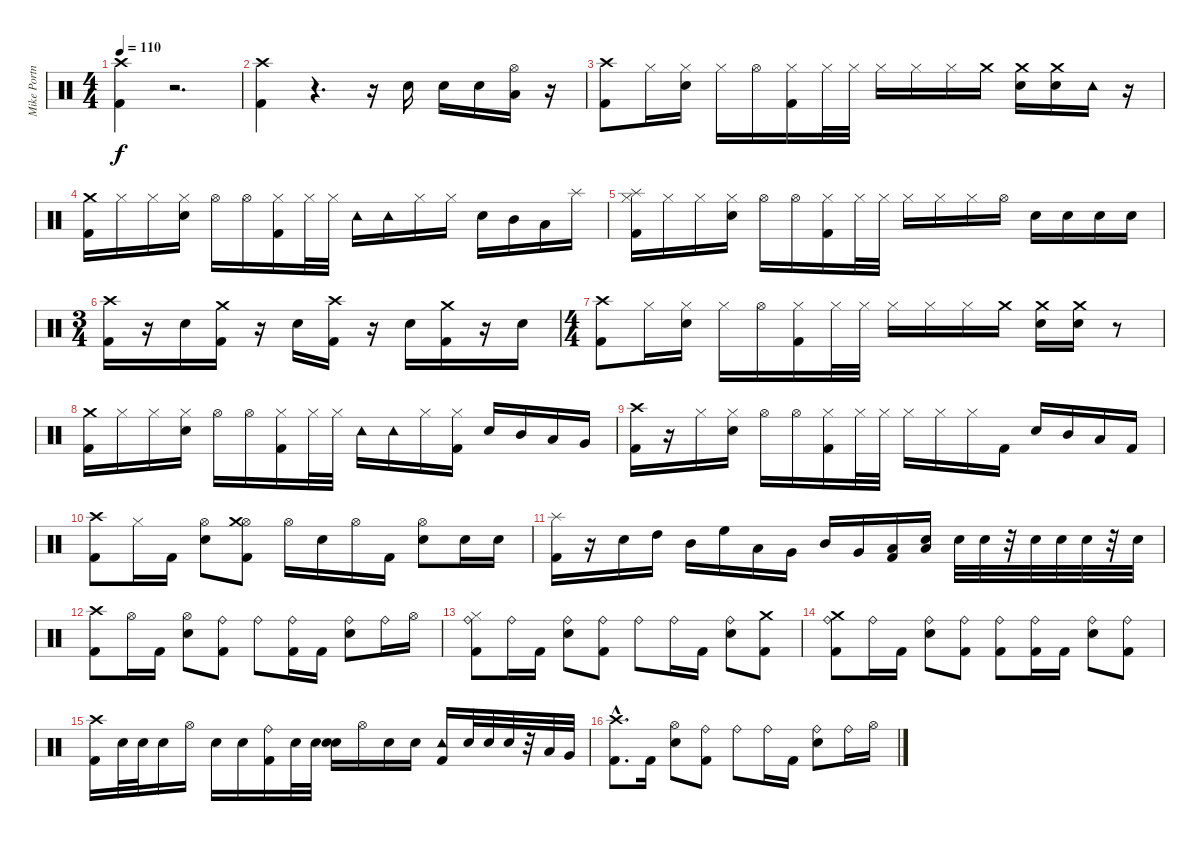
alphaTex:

\track ("Mike Portnoy - Drums" "Mike Portn") {instrument percussion}
\staff {score}
\articulation defaults
\ts (4 4)
\tempo 110
\clef neutral
\ks c
("Crash high (hit)" "Kick (hit) 2").4{dy f} r.2{d} |
("Crash high (hit)" "Kick (hit) 2").4 r.4{d} r.16 "Electric Snare (hit)".16 "Electric Snare (hit)".16 "Electric Snare (hit)".16 ("Low Tom (hit)" "Hi-Hat (open)").16 r.16 |
("Crash high (hit)" "Kick (hit) 2").8 "Hi-Hat (closed)".16 ("Electric Snare (hit)" "Hi-Hat (closed)").16 "Hi-Hat (closed)".16 "Hi-Hat (open)".16 ("Kick (hit) 2" "Hi-Hat (closed)").16 "Hi-Hat (closed)".32 "Hi-Hat (closed)".32 "Hi-Hat (closed)".16 "Hi-Hat (closed)".16 "Hi-Hat (closed)".16 "Crash medium (hit)".16 ("Electric Snare (hit)" "Crash medium (hit)").16 ("Electric Snare (hit)" "Crash medium (hit)").16 "Tambourine (hit)".16 r.16 |
("Kick (hit) 2" "Crash medium (hit)").16 "Hi-Hat (closed)".16 "Hi-Hat (closed)".16 ("Electric Snare (hit)" "Hi-Hat (closed)").16 "Hi-Hat (open)".16 "Hi-Hat (open)".16 ("Kick (hit) 2" "Hi-Hat (closed)").16 "Hi-Hat (closed)".32 "Hi-Hat (closed)".32 "Tambourine (hit)".16 "Tambourine (hit)".16 "Hi-Hat (closed)".16 "Hi-Hat (closed)".16 "Electric Snare (hit)".16 "Mid Tom (hit)".16 "Low Tom (hit)".16 "Splash (hit)".16 |
("Kick (hit) 2" "Splash (hit)" "Hi-Hat (closed)").16 "Hi-Hat (closed)".16 "Hi-Hat (closed)".16 ("Electric Snare (hit)" "Hi-Hat (closed)").16 "Hi-Hat (open)".16 "Hi-Hat (open)".16 ("Kick (hit) 2" "Hi-Hat (closed)").16 "Hi-Hat (closed)".32 "Hi-Hat (closed)".32 "Hi-Hat (closed)".16 "Hi-Hat (closed)".16 "Hi-Hat (closed)".16 "Hi-Hat (open)".16 "Electric Snare (hit)".16 "Electric Snare (hit)".16 "Electric Snare (hit)".16 "Electric Snare (hit)".16 |
\ts (3 4)
("Kick (hit) 2" "Crash high (hit)").16 r.16 "Electric Snare (hit)".16 ("Kick (hit) 2" "Crash medium (hit)").16 r.16 "Electric Snare (hit)".16 ("Kick (hit) 2" "Crash high (hit)").16 r.16 "Electric Snare (hit)".16 ("Kick (hit) 2" "Crash medium (hit)").16 r.16 "Electric Snare (hit)".16 |
\ts (4 4)
("Kick (hit) 2" "Crash high (hit)").8 "Hi-Hat (closed)".16 ("Electric Snare (hit)" "Hi-Hat (closed)").16 "Hi-Hat (closed)".16 "Hi-Hat (open)".16 ("Kick (hit) 2" "Hi-Hat (closed)").16 "Hi-Hat (closed)".32 "Hi-Hat (closed)".32 "Hi-Hat (closed)".16 "Hi-Hat (closed)".16 "Hi-Hat (closed)".16 "Crash medium (hit)".16 ("Electric Snare (hit)" "Crash medium (hit)").16 ("Electric Snare (hit)" "Crash medium (hit)").16 r.8 |
("Crash medium (hit)" "Kick (hit) 2").16 "Hi-Hat (closed)".16 "Hi-Hat (closed)".16 ("Electric Snare (hit)" "Hi-Hat (closed)").16 "Hi-Hat (open)".16 "Hi-Hat (open)".16 ("Kick (hit) 2" "Hi-Hat (closed)").16 "Hi-Hat (closed)".32 "Hi-Hat (closed)".32 "Tambourine (hit)".16 "Tambourine (hit)".16 "Hi-Hat (closed)".16 ("Kick (hit) 2" "Hi-Hat (closed)").16 "Electric Snare (hit)".16 "Mid Tom (hit)".16 "Low Tom (hit)".16 "Very Low Tom (hit)".16 |
("Crash high (hit)" "Kick (hit) 2").16 r.16 "Hi-Hat (closed)".16 ("Electric Snare (hit)" "Hi-Hat (closed)").16 "Hi-Hat (open)".16 "Hi-Hat (open)".16 ("Kick (hit) 2" "Hi-Hat (closed)").16 "Hi-Hat (closed)".32 "Hi-Hat (closed)".32 "Hi-Hat (closed)".16 "Hi-Hat (closed)".16 "Hi-Hat (closed)".16 "Kick (hit) 2".16 "Electric Snare (hit)".16 "Mid Tom (hit)".16 "Low Tom (hit)".16 "Kick (hit) 2".16 |
("Crash high (hit)" "Kick (hit) 2").8 "Hi-Hat (closed)".16 "Kick (hit) 2".16 ("Electric Snare (hit)" "Hi-Hat (open)").8 ("Hi-Hat (open)" "Kick (hit) 2" "Crash medium (hit)").8 "Hi-Hat (open)".16 "Electric Snare (hit)".16 "Hi-Hat (open)".16 "Kick (hit) 2".16 ("Electric Snare (hit)" "Hi-Hat (open)").8 "Electric Snare (hit)".16 "Electric Snare (hit)".16 |
("Splash (hit)" "Kick (hit) 2").16 r.16 "Electric Snare (hit)".16 "High Tom (hit)".16 "Mid Tom (hit)".16 "High Floor Tom (hit)".16 "Low Tom (hit)".16 "Very Low Tom (hit)".16 "Mid Tom (hit)".16 "Very Low Tom (hit)".16 ("Kick (hit) 2" "Low Floor Tom (hit)").16 ("Metronome (bell)" "Low Floor Tom (hit)").16 "Electric Snare (hit)".32 "Electric Snare (hit)".32 r.32 "Electric Snare (hit)".32 "Electric Snare (hit)".32 "Electric Snare (hit)".32 r.32 "Electric Snare (hit)".32 |
("Crash high (hit)" "Kick (hit) 2").8 "Hi-Hat (open)".16 "Kick (hit) 2".16 ("Electric Snare (hit)" "Hi-Hat (open)").8 ("Kick (hit) 2" "Ride (bell)").8 "Ride (bell)".8 ("Kick (hit) 2" "Ride (bell)").16 "Kick (hit) 2".16 ("Electric Snare (hit)" "Ride (bell)").8 "Ride (bell)".16 "Hi-Hat (open)".16 |
("Ride (bell)" "Hi-Hat (closed)" "Kick (hit) 2").8 "Ride (bell)".16 "Kick (hit) 2".16 ("Electric Snare (hit)" "Ride (bell)").8 ("Kick (hit) 2" "Ride (bell)").8 "Ride (bell)".8 "Ride (bell)".16 "Kick (hit) 2".16 ("Ride (bell)" "Electric Snare (hit)").8 ("Kick (hit) 2" "Crash medium (hit)").8 |
("Kick (hit) 2" "Ride (bell)" "Crash medium (hit)").8 "Ride (bell)".16 "Kick (hit) 2".16 ("Electric Snare (hit)" "Ride (bell)").8 ("Ride (bell)" "Kick (hit) 2").8 ("Ride (bell)" "Kick (hit) 2").8 ("Ride (bell)" "Kick (hit) 2").16 "Kick (hit) 2".16 ("Ride (bell)" "Electric Snare (hit)").8 ("Kick (hit) 2" "Ride (bell)").8 |
("Crash high (hit)" "Kick (hit) 2").16 "Electric Snare (hit)".32 "Electric Snare (hit)".32 "Electric Snare (hit)".16 "Hi-Hat (open)".16 "Electric Snare (hit)".16 "Electric Snare (hit)".16 ("Kick (hit) 2" "Ride (bell)").16 "Electric Snare (hit)".32 "Electric Snare (hit)".32 ("Electric Snare (hit)" "Electric Snare (hit)").16 "Hi-Hat (open)".16 "Electric Snare (hit)".16 "Electric Snare (hit)".16 ("Kick (hit) 2" "Tambourine (hit)").16 "Electric Snare (hit)".32 "Electric Snare (hit)".32 "Electric Snare (hit)".32 r.32 "Low Tom (hit)".32 "Very Low Tom (hit)".32 |
("Kick (hit) 2"{hac} "Crash high (hit)"{hac}).8{d} "Kick (hit) 2".16 ("Electric Snare (hit)" "Hi-Hat (open)").8 ("Kick (hit) 2" "Ride (bell)").8 "Ride (bell)".8 "Ride (bell)".16 "Kick (hit) 2".16 ("Electric Snare (hit)" "Ride (bell)").8 "Ride (bell)".16 "Hi-Hat (open)".16
